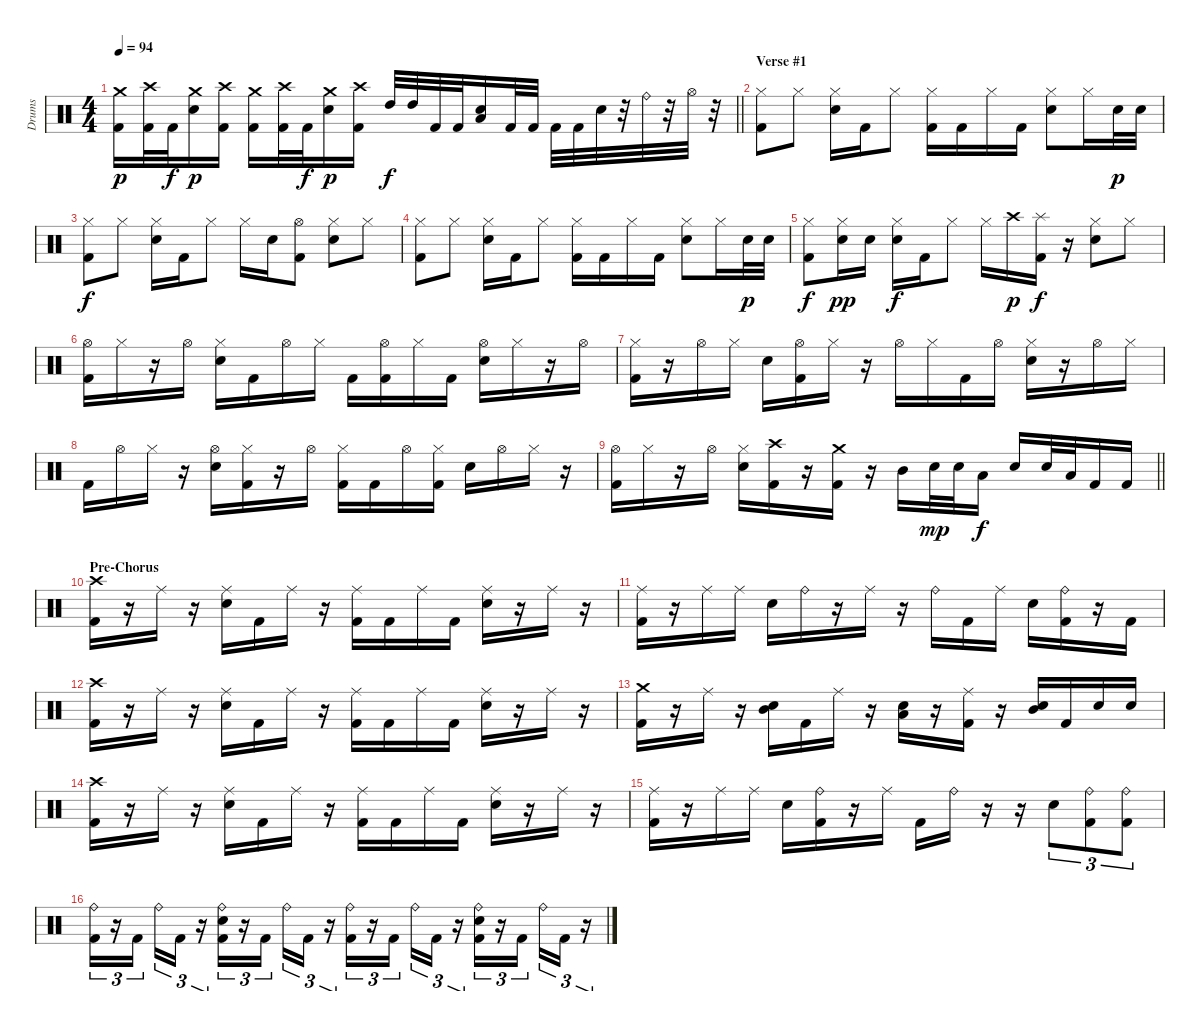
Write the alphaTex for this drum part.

\track ("Drums" "Drums") {instrument percussion}
\staff {score}
\articulation defaults
\ts (4 4)
\tempo 94
\clef neutral
\barLineRight lightlight
\ks c
("Kick (hit) 2" "Crash medium (hit)").16{dy p} ("Kick (hit) 2" "Crash high (hit)").32 "Kick (hit) 2".32{dy f} ("Snare (hit) 2" "Crash medium (hit)").16{dy p} ("Kick (hit) 2" "Crash high (hit)").16 ("Kick (hit) 2" "Crash medium (hit)").16 ("Kick (hit) 2" "Crash high (hit)").32 "Kick (hit) 2".32{dy f} ("Snare (hit) 2" "Crash medium (hit)").16{dy p} ("Kick (hit) 2" "Crash high (hit)").16 "High Tom (hit)".32{dy f} "High Tom (hit)".32 "Kick (hit) 2".32 "Kick (hit) 2".32 ("Snare (hit) 2" "Low Tom (hit)").16 "Kick (hit) 2".32 "Kick (hit) 2".32 "Kick (hit) 2".32 "Kick (hit) 2".32 "Snare (hit) 2".32 r.32 "Ride (bell)".32 r.32 "Hi-Hat (open)".32 r.32 |
\section ("" "Verse #1")
("Kick (hit) 2" "Hi-Hat (closed)").8 "Hi-Hat (closed)".8 ("Hi-Hat (closed)" "Snare (hit) 2").16 "Kick (hit) 2".16 "Hi-Hat (closed)".8 ("Hi-Hat (closed)" "Kick (hit) 2").16 "Kick (hit) 2".16 "Hi-Hat (closed)".16 "Kick (hit) 2".16 ("Snare (hit) 2" "Hi-Hat (closed)").8 "Hi-Hat (closed)".16 "Snare (hit) 2".32{dy p} "Snare (hit) 2".32 |
("Kick (hit) 2" "Hi-Hat (closed)").8{dy f} "Hi-Hat (closed)".8 ("Hi-Hat (closed)" "Snare (hit) 2").16 "Kick (hit) 2".16 "Hi-Hat (closed)".8 "Hi-Hat (closed)".16 "Snare (hit) 2".16 ("Kick (hit) 2" "Hi-Hat (open)").8 ("Snare (hit) 2" "Hi-Hat (closed)").8 "Hi-Hat (closed)".8 |
("Kick (hit) 2" "Hi-Hat (closed)").8 "Hi-Hat (closed)".8 ("Hi-Hat (closed)" "Snare (hit) 2").16 "Kick (hit) 2".16 "Hi-Hat (closed)".8 ("Hi-Hat (closed)" "Kick (hit) 2").16 "Kick (hit) 2".16 "Hi-Hat (closed)".16 "Kick (hit) 2".16 ("Snare (hit) 2" "Hi-Hat (closed)").8 "Hi-Hat (closed)".16 "Snare (hit) 2".32{dy p} "Snare (hit) 2".32 |
("Kick (hit) 2" "Hi-Hat (closed)").8{dy f} ("Hi-Hat (closed)" "Snare (hit) 2").16{dy pp} "Snare (hit) 2".16 ("Hi-Hat (closed)" "Snare (hit) 2").16{dy f} "Kick (hit) 2".16 "Hi-Hat (closed)".8 "Hi-Hat (closed)".16 "Crash high (hit)".16{dy p} ("Kick (hit) 2" "Splash (hit)").16{dy f} r.16 ("Snare (hit) 2" "Hi-Hat (closed)").8 "Hi-Hat (closed)".8 |
("Hi-Hat (open)" "Kick (hit) 2").16 "Hi-Hat (closed)".16 r.16 "Hi-Hat (open)".16 ("Hi-Hat (closed)" "Snare (hit) 2").16 "Kick (hit) 2".16 "Hi-Hat (open)".16 "Hi-Hat (closed)".16 "Kick (hit) 2".16 ("Hi-Hat (open)" "Kick (hit) 2").16 "Hi-Hat (closed)".16 "Kick (hit) 2".16 ("Hi-Hat (open)" "Snare (hit) 2").16 "Hi-Hat (closed)".16 r.16 "Hi-Hat (open)".16 |
("Kick (hit) 2" "Hi-Hat (closed)").16 r.16 "Hi-Hat (open)".16 "Hi-Hat (closed)".16 "Snare (hit) 2".16 ("Hi-Hat (open)" "Kick (hit) 2").16 "Hi-Hat (closed)".16 r.16 "Hi-Hat (open)".16 "Hi-Hat (closed)".16 "Kick (hit) 2".16 "Hi-Hat (open)".16 ("Snare (hit) 2" "Hi-Hat (closed)").16 r.16 "Hi-Hat (open)".16 "Hi-Hat (closed)".16 |
"Kick (hit) 2".16 "Hi-Hat (open)".16 "Hi-Hat (closed)".16 r.16 ("Hi-Hat (open)" "Snare (hit) 2").16 ("Kick (hit) 2" "Hi-Hat (closed)").16 r.16 "Hi-Hat (open)".16 ("Kick (hit) 2" "Hi-Hat (closed)").16 "Kick (hit) 2".16 "Hi-Hat (open)".16 ("Kick (hit) 2" "Hi-Hat (closed)").16 "Snare (hit) 2".16 "Hi-Hat (open)".16 "Hi-Hat (closed)".16 r.16 |
\barLineRight lightlight
("Hi-Hat (open)" "Kick (hit) 2").16 "Hi-Hat (closed)".16 r.16 "Hi-Hat (open)".16 ("Hi-Hat (closed)" "Snare (hit) 2").16 ("Kick (hit) 2" "Crash high (hit)").16 r.16 ("Kick (hit) 2" "Crash medium (hit)").16 r.16 "Mid Tom (hit)".16 "Snare (hit) 2".32{dy mp} "Snare (hit) 2".32 "Low Tom (hit)".16{dy f} "Snare (hit) 2".16 "Snare (hit) 2".32 "Low Tom (hit)".32 "Kick (hit) 2".16 "Kick (hit) 2".16 |
\section ("" "Pre-Chorus")
("Crash high (hit)" "Kick (hit) 2").16 r.16 "Ride (middle)".16 r.16 ("Ride (middle)" "Snare (hit) 2").16 "Kick (hit) 2".16 "Ride (middle)".16 r.16 ("Ride (middle)" "Kick (hit) 2").16 "Kick (hit) 2".16 "Ride (middle)".16 "Kick (hit) 2".16 ("Ride (middle)" "Snare (hit) 2").16 r.16 "Ride (middle)".16 r.16 |
("Kick (hit) 2" "Ride (middle)").16 r.16 "Ride (middle)".16 "Ride (middle)".16 "Snare (hit) 2".16 "Ride (bell)".16 r.16 "Ride (middle)".16 r.16 "Ride (bell)".16 "Kick (hit) 2".16 "Ride (middle)".16 "Snare (hit) 2".16 ("Ride (bell)" "Kick (hit) 2").16 r.16 "Kick (hit) 2".16 |
("Crash high (hit)" "Kick (hit) 2").16 r.16 "Ride (middle)".16 r.16 ("Ride (middle)" "Snare (hit) 2").16 "Kick (hit) 2".16 "Ride (middle)".16 r.16 ("Ride (middle)" "Kick (hit) 2").16 "Kick (hit) 2".16 "Ride (middle)".16 "Kick (hit) 2".16 ("Ride (middle)" "Snare (hit) 2").16 r.16 "Ride (middle)".16 r.16 |
("Crash medium (hit)" "Kick (hit) 2").16 r.16 "Ride (middle)".16 r.16 ("Snare (hit) 2" "Mid Tom (hit)").16 "Kick (hit) 2".16 "Ride (middle)".16 r.16 ("Snare (hit) 2" "Low Tom (hit)").16 r.16 ("Kick (hit) 2" "Ride (middle)").16 r.16 ("Snare (hit) 2" "Mid Tom (hit)").16 "Kick (hit) 2".16 "Snare (hit) 2".16 "Snare (hit) 2".16 |
("Crash high (hit)" "Kick (hit) 2").16 r.16 "Ride (middle)".16 r.16 ("Ride (middle)" "Snare (hit) 2").16 "Kick (hit) 2".16 "Ride (middle)".16 r.16 ("Ride (middle)" "Kick (hit) 2").16 "Kick (hit) 2".16 "Ride (middle)".16 "Kick (hit) 2".16 ("Ride (middle)" "Snare (hit) 2").16 r.16 "Ride (middle)".16 r.16 |
("Kick (hit) 2" "Ride (middle)").16 r.16 "Ride (middle)".16 "Ride (middle)".16 "Snare (hit) 2".16 ("Ride (bell)" "Kick (hit) 2").16 r.16 "Ride (middle)".16 "Kick (hit) 2".16 "Ride (bell)".16 r.16 r.16 "Snare (hit) 2".8{tu (3 2)} ("Ride (bell)" "Kick (hit) 2").8{tu (3 2)} ("Kick (hit) 2" "Ride (bell)").8{tu (3 2)} |
("Kick (hit) 2" "Ride (bell)").16{tu (3 2)} r.16{tu (3 2)} "Kick (hit) 2".16{tu (3 2) beam splitsecondary} "Ride (bell)".16{tu (3 2)} "Kick (hit) 2".16{tu (3 2)} r.16{tu (3 2)} ("Kick (hit) 2" "Ride (bell)" "Snare (hit) 2").16{tu (3 2)} r.16{tu (3 2)} "Kick (hit) 2".16{tu (3 2) beam splitsecondary} "Ride (bell)".16{tu (3 2)} "Kick (hit) 2".16{tu (3 2)} r.16{tu (3 2)} ("Kick (hit) 2" "Ride (bell)").16{tu (3 2)} r.16{tu (3 2)} "Kick (hit) 2".16{tu (3 2) beam splitsecondary} "Ride (bell)".16{tu (3 2)} "Kick (hit) 2".16{tu (3 2)} r.16{tu (3 2)} ("Kick (hit) 2" "Ride (bell)" "Snare (hit) 2").16{tu (3 2)} r.16{tu (3 2)} "Kick (hit) 2".16{tu (3 2) beam splitsecondary} "Ride (bell)".16{tu (3 2)} "Kick (hit) 2".16{tu (3 2)} r.16{tu (3 2)}
